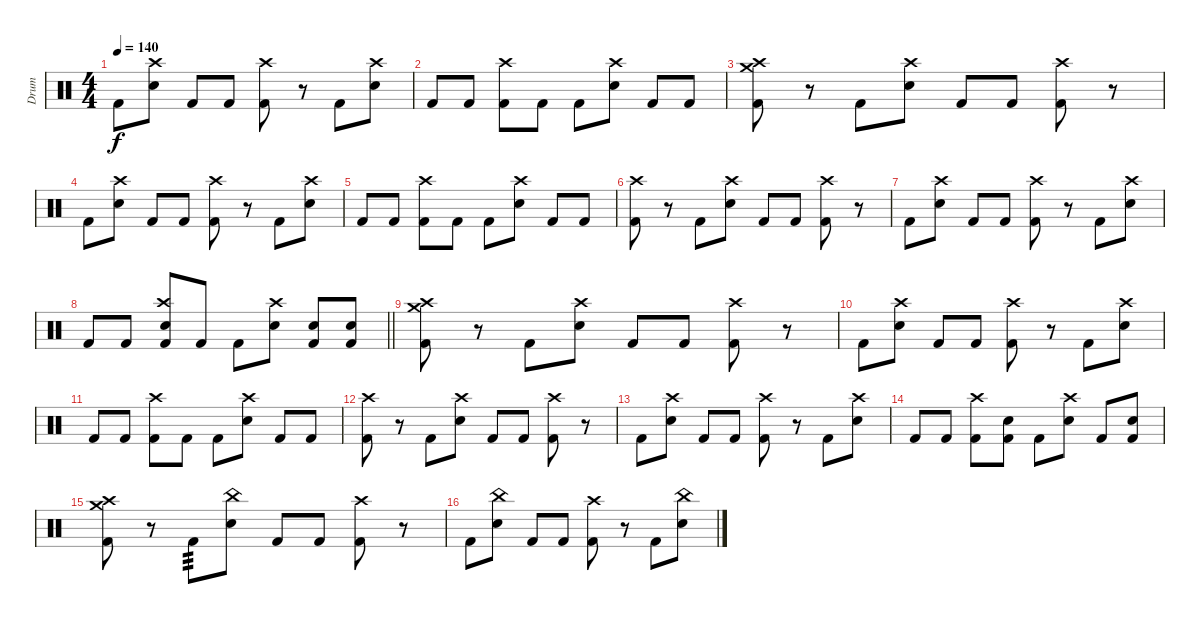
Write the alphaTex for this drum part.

\track ("Drum" "Drum") {instrument percussion}
\staff {score}
\articulation defaults
\ts (4 4)
\tempo 140
\clef neutral
\ks c "Kick (hit) 2".8{dy f}
("Crash high (hit)" "Snare (hit) 2").8 "Kick (hit) 2".8 "Kick (hit) 2".8 ("Crash high (hit)" "Kick (hit) 2").8 r.8 "Kick (hit) 2".8 ("Crash high (hit)" "Snare (hit) 2").8 |
"Kick (hit) 2".8 "Kick (hit) 2".8 ("Crash high (hit)" "Kick (hit) 2").8 "Kick (hit) 2".8 "Kick (hit) 2".8 ("Crash high (hit)" "Snare (hit) 2").8 "Kick (hit) 2".8 "Kick (hit) 2".8 |
("Crash high (hit)" "Crash medium (hit)" "Kick (hit) 2").8 r.8 "Kick (hit) 2".8 ("Crash high (hit)" "Snare (hit) 2").8 "Kick (hit) 2".8 "Kick (hit) 2".8 ("Crash high (hit)" "Kick (hit) 2").8 r.8 |
"Kick (hit) 2".8 ("Crash high (hit)" "Snare (hit) 2").8 "Kick (hit) 2".8 "Kick (hit) 2".8 ("Crash high (hit)" "Kick (hit) 2").8 r.8 "Kick (hit) 2".8 ("Crash high (hit)" "Snare (hit) 2").8 |
"Kick (hit) 2".8 "Kick (hit) 2".8 ("Crash high (hit)" "Kick (hit) 2").8 "Kick (hit) 2".8 "Kick (hit) 2".8 ("Crash high (hit)" "Snare (hit) 2").8 "Kick (hit) 2".8 "Kick (hit) 2".8 |
("Crash high (hit)" "Kick (hit) 2").8 r.8 "Kick (hit) 2".8 ("Crash high (hit)" "Snare (hit) 2").8 "Kick (hit) 2".8 "Kick (hit) 2".8 ("Crash high (hit)" "Kick (hit) 2").8 r.8 |
"Kick (hit) 2".8 ("Crash high (hit)" "Snare (hit) 2").8 "Kick (hit) 2".8 "Kick (hit) 2".8 ("Crash high (hit)" "Kick (hit) 2").8 r.8 "Kick (hit) 2".8 ("Crash high (hit)" "Snare (hit) 2").8 |
\barLineRight lightlight "Kick (hit) 2".8 "Kick (hit) 2".8
("Crash high (hit)" "Snare (hit) 2" "Kick (hit) 2").8 "Kick (hit) 2".8 "Kick (hit) 2".8 ("Crash high (hit)" "Snare (hit) 2").8 ("Snare (hit) 2" "Kick (hit) 2").8 ("Snare (hit) 2" "Kick (hit) 2").8 |
\section ("" "")
("Crash high (hit)" "Crash medium (hit)" "Kick (hit) 2").8 r.8 "Kick (hit) 2".8 ("Crash high (hit)" "Snare (hit) 2").8 "Kick (hit) 2".8 "Kick (hit) 2".8 ("Crash high (hit)" "Kick (hit) 2").8 r.8 |
"Kick (hit) 2".8 ("Crash high (hit)" "Snare (hit) 2").8 "Kick (hit) 2".8 "Kick (hit) 2".8 ("Crash high (hit)" "Kick (hit) 2").8 r.8 "Kick (hit) 2".8 ("Crash high (hit)" "Snare (hit) 2").8 |
"Kick (hit) 2".8 "Kick (hit) 2".8 ("Crash high (hit)" "Kick (hit) 2").8 "Kick (hit) 2".8 "Kick (hit) 2".8 ("Crash high (hit)" "Snare (hit) 2").8 "Kick (hit) 2".8 "Kick (hit) 2".8 |
("Crash high (hit)" "Kick (hit) 2").8 r.8 "Kick (hit) 2".8 ("Crash high (hit)" "Snare (hit) 2").8 "Kick (hit) 2".8 "Kick (hit) 2".8 ("Crash high (hit)" "Kick (hit) 2").8 r.8 |
"Kick (hit) 2".8 ("Crash high (hit)" "Snare (hit) 2").8 "Kick (hit) 2".8 "Kick (hit) 2".8 ("Crash high (hit)" "Kick (hit) 2").8 r.8 "Kick (hit) 2".8 ("Crash high (hit)" "Snare (hit) 2").8 |
"Kick (hit) 2".8 "Kick (hit) 2".8 ("Crash high (hit)" "Kick (hit) 2").8 ("Snare (hit) 2" "Kick (hit) 2").8 "Kick (hit) 2".8 ("Crash high (hit)" "Snare (hit) 2").8 "Kick (hit) 2".8 ("Snare (hit) 2" "Kick (hit) 2").8 |
("Crash high (hit)" "Crash medium (hit)" "Kick (hit) 2").8 r.8 "Kick (hit) 2".8{tp 3} ("China (hit)" "Snare (hit) 2").8 "Kick (hit) 2".8 "Kick (hit) 2".8 ("Crash high (hit)" "Kick (hit) 2").8 r.8 |
"Kick (hit) 2".8 ("China (hit)" "Snare (hit) 2").8 "Kick (hit) 2".8 "Kick (hit) 2".8 ("Crash high (hit)" "Kick (hit) 2").8 r.8 "Kick (hit) 2".8 ("China (hit)" "Snare (hit) 2").8
